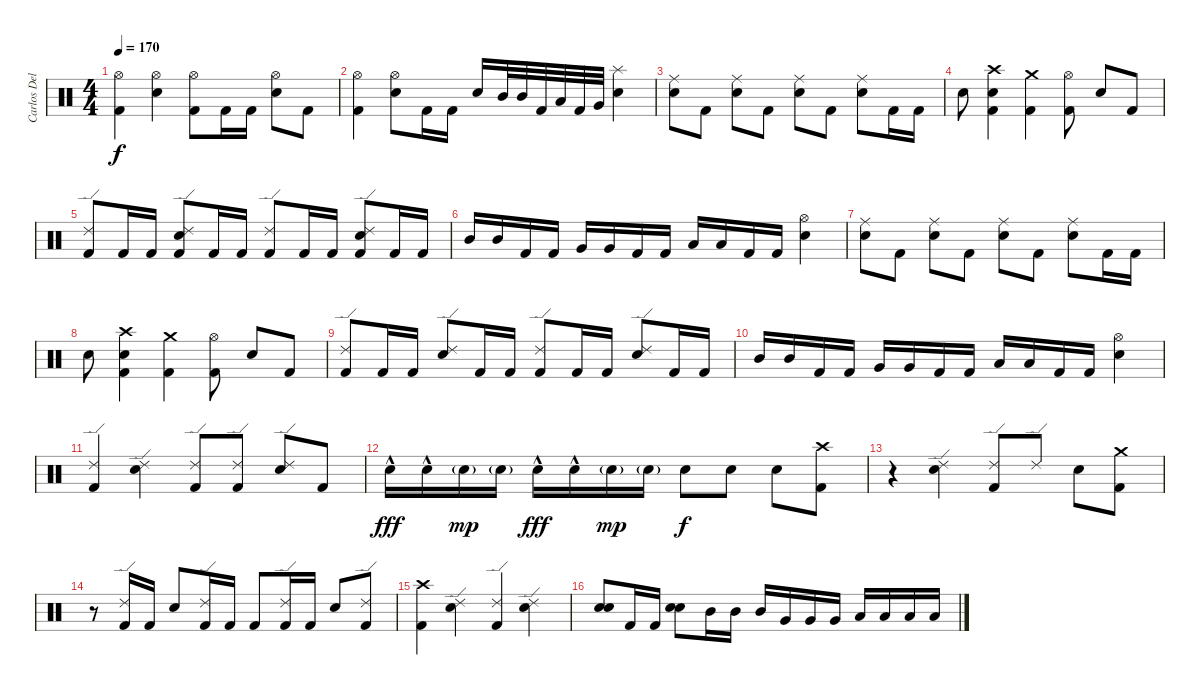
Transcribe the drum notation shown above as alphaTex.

\track ("Carlos Delgado" "Carlos Del") {instrument percussion}
\staff {score}
\articulation defaults
\ts (4 4)
\tempo 170
\clef neutral
\ks c
("Hi-Hat (open)" "Kick (hit) 2").4{dy f} ("Hi-Hat (open)" "Electric Snare (hit)").4 ("Hi-Hat (open)" "Kick (hit) 2").8 "Kick (hit) 2".16 "Kick (hit) 2".16 ("Hi-Hat (open)" "Electric Snare (hit)").8 "Kick (hit) 2".8 |
("Hi-Hat (open)" "Kick (hit) 2").4 ("Hi-Hat (open)" "Electric Snare (hit)").8 "Kick (hit) 2".16 "Kick (hit) 2".16 "Electric Snare (hit)".16 "Mid Tom (hit)".32 "Mid Tom (hit)".32 "Kick (hit) 2".32 "Low Tom (hit)".32 "Kick (hit) 2".32 "Very Low Tom (hit)".32 ("Splash (hit)" "Electric Snare (hit)").4 |
("Ride (middle)" "Electric Snare (hit)").8 "Kick (hit) 2".8 ("Ride (middle)" "Electric Snare (hit)").8 "Kick (hit) 2".8 ("Ride (middle)" "Electric Snare (hit)").8 "Kick (hit) 2".8 ("Ride (middle)" "Electric Snare (hit)").8 "Kick (hit) 2".16 "Kick (hit) 2".16 |
"Electric Snare (hit)".8 ("Crash high (hit)" "Electric Snare (hit)" "Kick (hit) 2").4 ("Crash medium (hit)" "Kick (hit) 2").4 ("Hi-Hat (open)" "Kick (hit) 2").8 "Electric Snare (hit)".8 "Kick (hit) 2".8 |
("Ride (edge) 2" "Kick (hit) 2").8 "Kick (hit) 2".16 "Kick (hit) 2".16 ("Ride (edge) 2" "Electric Snare (hit)" "Kick (hit) 2").8 "Kick (hit) 2".16 "Kick (hit) 2".16 ("Ride (edge) 2" "Kick (hit) 2").8 "Kick (hit) 2".16 "Kick (hit) 2".16 ("Ride (edge) 2" "Electric Snare (hit)" "Kick (hit) 2").8 "Kick (hit) 2".16 "Kick (hit) 2".16 |
"Mid Tom (hit)".16 "Mid Tom (hit)".16 "Kick (hit) 2".16 "Kick (hit) 2".16 "Very Low Tom (hit)".16 "Very Low Tom (hit)".16 "Kick (hit) 2".16 "Kick (hit) 2".16 "Low Tom (hit)".16 "Low Tom (hit)".16 "Kick (hit) 2".16 "Kick (hit) 2".16 ("Hi-Hat (open)" "Electric Snare (hit)").4 |
("Ride (middle)" "Electric Snare (hit)").8 "Kick (hit) 2".8 ("Ride (middle)" "Electric Snare (hit)").8 "Kick (hit) 2".8 ("Ride (middle)" "Electric Snare (hit)").8 "Kick (hit) 2".8 ("Ride (middle)" "Electric Snare (hit)").8 "Kick (hit) 2".16 "Kick (hit) 2".16 |
"Electric Snare (hit)".8 ("Crash high (hit)" "Electric Snare (hit)" "Kick (hit) 2").4 ("Crash medium (hit)" "Kick (hit) 2").4 ("Hi-Hat (open)" "Kick (hit) 2").8 "Electric Snare (hit)".8 "Kick (hit) 2".8 |
("Ride (edge) 2" "Kick (hit) 2").8 "Kick (hit) 2".16 "Kick (hit) 2".16 ("Ride (edge) 2" "Electric Snare (hit)").8 "Kick (hit) 2".16 "Kick (hit) 2".16 ("Ride (edge) 2" "Kick (hit) 2").8 "Kick (hit) 2".16 "Kick (hit) 2".16 ("Ride (edge) 2" "Electric Snare (hit)").8 "Kick (hit) 2".16 "Kick (hit) 2".16 |
"Mid Tom (hit)".16 "Mid Tom (hit)".16 "Kick (hit) 2".16 "Kick (hit) 2".16 "Very Low Tom (hit)".16 "Very Low Tom (hit)".16 "Kick (hit) 2".16 "Kick (hit) 2".16 "Low Tom (hit)".16 "Low Tom (hit)".16 "Kick (hit) 2".16 "Kick (hit) 2".16 ("Hi-Hat (open)" "Electric Snare (hit)").4 |
("Ride (edge) 2" "Kick (hit) 2").4 ("Ride (edge) 2" "Electric Snare (hit)").4 ("Ride (edge) 2" "Kick (hit) 2").8 ("Ride (edge) 2" "Kick (hit) 2").8 ("Ride (edge) 2" "Electric Snare (hit)").8 "Kick (hit) 2".8 |
"Electric Snare (hit)"{hac}.16{dy fff} "Electric Snare (hit)"{hac}.16 "Electric Snare (hit)"{g}.16{dy mp} "Electric Snare (hit)"{g}.16 "Electric Snare (hit)"{hac}.16{dy fff} "Electric Snare (hit)"{hac}.16 "Electric Snare (hit)"{g}.16{dy mp} "Electric Snare (hit)"{g}.16 "Electric Snare (hit)".8{dy f} "Electric Snare (hit)".8 "Electric Snare (hit)".8 ("Crash high (hit)" "Kick (hit) 2").8 |
r.4 ("Ride (edge) 2" "Electric Snare (hit)").4 ("Ride (edge) 2" "Kick (hit) 2").8 "Ride (edge) 2".8 "Electric Snare (hit)".8 ("Crash medium (hit)" "Kick (hit) 2").8 |
r.8 ("Ride (edge) 2" "Kick (hit) 2").16 "Kick (hit) 2".16 "Electric Snare (hit)".8 ("Ride (edge) 2" "Kick (hit) 2").16 "Kick (hit) 2".16 "Kick (hit) 2".8 ("Ride (edge) 2" "Kick (hit) 2").16 "Kick (hit) 2".16 "Electric Snare (hit)".8 ("Ride (edge) 2" "Kick (hit) 2").8 |
("Crash high (hit)" "Kick (hit) 2").4 ("Ride (edge) 2" "Electric Snare (hit)").4 ("Ride (edge) 2" "Kick (hit) 2").4 ("Ride (edge) 2" "Electric Snare (hit)").4 |
("Electric Snare (hit)" "Electric Snare (hit)").8{bd 240} "Kick (hit) 2".16 "Kick (hit) 2".16 ("Electric Snare (hit)" "Electric Snare (hit)").8{bd 240} "Mid Tom (hit)".16 "Mid Tom (hit)".16 "Mid Tom (hit)".16 "Very Low Tom (hit)".16 "Very Low Tom (hit)".16 "Very Low Tom (hit)".16 "Low Tom (hit)".16 "Low Tom (hit)".16 "Low Tom (hit)".16 "Low Floor Tom (hit)".16
